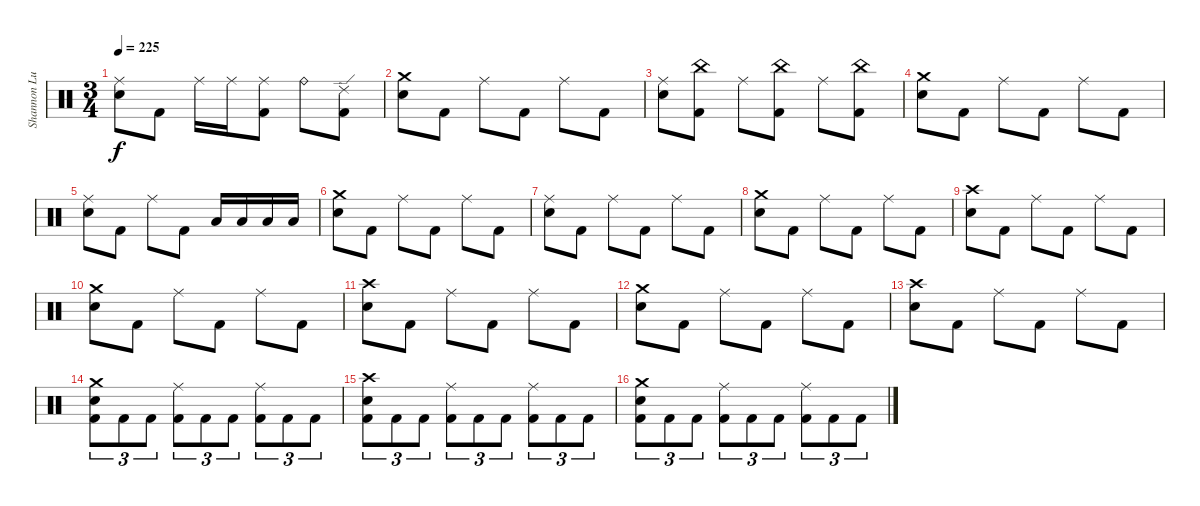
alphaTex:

\track ("Shannon Lucas" "Shannon Lu") {instrument percussion}
\staff {score}
\articulation defaults
\ts (3 4)
\tempo 225
\clef neutral
\ks c
("Ride (middle)" "Electric Snare (hit)").8{dy f} "Kick (hit) 2".8 "Ride (middle)".16 "Ride (middle)".16 ("Ride (middle)" "Kick (hit) 2").8 "Ride (bell)".8 ("Ride (edge) 2" "Kick (hit) 2").8 |
("Crash medium (hit)" "Electric Snare (hit)").8 "Kick (hit) 2".8 "Ride (middle)".8 "Kick (hit) 2".8 "Ride (middle)".8 "Kick (hit) 2".8 |
("Ride (middle)" "Electric Snare (hit)").8 ("China (hit)" "Kick (hit) 2").8 "Ride (middle)".8 ("China (hit)" "Kick (hit) 2").8 "Ride (middle)".8 ("China (hit)" "Kick (hit) 2").8 |
("Crash medium (hit)" "Electric Snare (hit)").8 "Kick (hit) 2".8 "Ride (middle)".8 "Kick (hit) 2".8 "Ride (middle)".8 "Kick (hit) 2".8 |
("Ride (middle)" "Electric Snare (hit)").8 "Kick (hit) 2".8 "Ride (middle)".8 "Kick (hit) 2".8 "Low Tom (hit)".16 "Low Tom (hit)".16 "Low Tom (hit)".16 "Low Tom (hit)".16 |
("Crash medium (hit)" "Electric Snare (hit)").8 "Kick (hit) 2".8 "Ride (middle)".8 "Kick (hit) 2".8 "Ride (middle)".8 "Kick (hit) 2".8 |
("Ride (middle)" "Electric Snare (hit)").8 "Kick (hit) 2".8 "Ride (middle)".8 "Kick (hit) 2".8 "Ride (middle)".8 "Kick (hit) 2".8 |
("Crash medium (hit)" "Electric Snare (hit)").8 "Kick (hit) 2".8 "Ride (middle)".8 "Kick (hit) 2".8 "Ride (middle)".8 "Kick (hit) 2".8 |
("Crash high (hit)" "Electric Snare (hit)").8 "Kick (hit) 2".8 "Ride (middle)".8 "Kick (hit) 2".8 "Ride (middle)".8 "Kick (hit) 2".8 |
("Crash medium (hit)" "Electric Snare (hit)").8 "Kick (hit) 2".8 "Ride (middle)".8 "Kick (hit) 2".8 "Ride (middle)".8 "Kick (hit) 2".8 |
("Crash high (hit)" "Electric Snare (hit)").8 "Kick (hit) 2".8 "Ride (middle)".8 "Kick (hit) 2".8 "Ride (middle)".8 "Kick (hit) 2".8 |
("Crash medium (hit)" "Electric Snare (hit)").8 "Kick (hit) 2".8 "Ride (middle)".8 "Kick (hit) 2".8 "Ride (middle)".8 "Kick (hit) 2".8 |
("Crash high (hit)" "Electric Snare (hit)").8 "Kick (hit) 2".8 "Ride (middle)".8 "Kick (hit) 2".8 "Ride (middle)".8 "Kick (hit) 2".8 |
("Crash medium (hit)" "Electric Snare (hit)" "Kick (hit) 2").8{tu (3 2)} "Kick (hit) 2".8{tu (3 2)} "Kick (hit) 2".8{tu (3 2)} ("Ride (middle)" "Kick (hit) 2").8{tu (3 2)} "Kick (hit) 2".8{tu (3 2)} "Kick (hit) 2".8{tu (3 2)} ("Ride (middle)" "Kick (hit) 2").8{tu (3 2)} "Kick (hit) 2".8{tu (3 2)} "Kick (hit) 2".8{tu (3 2)} |
("Crash high (hit)" "Electric Snare (hit)" "Kick (hit) 2").8{tu (3 2)} "Kick (hit) 2".8{tu (3 2)} "Kick (hit) 2".8{tu (3 2)} ("Ride (middle)" "Kick (hit) 2").8{tu (3 2)} "Kick (hit) 2".8{tu (3 2)} "Kick (hit) 2".8{tu (3 2)} ("Ride (middle)" "Kick (hit) 2").8{tu (3 2)} "Kick (hit) 2".8{tu (3 2)} "Kick (hit) 2".8{tu (3 2)} |
("Crash medium (hit)" "Electric Snare (hit)" "Kick (hit) 2").8{tu (3 2)} "Kick (hit) 2".8{tu (3 2)} "Kick (hit) 2".8{tu (3 2)} ("Ride (middle)" "Kick (hit) 2").8{tu (3 2)} "Kick (hit) 2".8{tu (3 2)} "Kick (hit) 2".8{tu (3 2)} ("Ride (middle)" "Kick (hit) 2").8{tu (3 2)} "Kick (hit) 2".8{tu (3 2)} "Kick (hit) 2".8{tu (3 2)}
